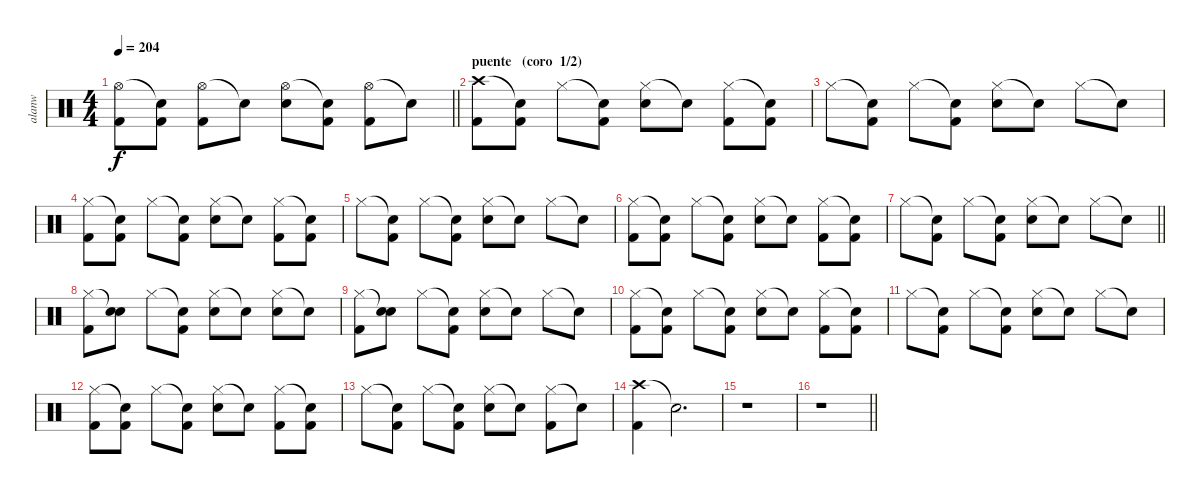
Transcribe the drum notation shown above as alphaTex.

\track ("alanw" "alanw") {instrument percussion}
\staff {score}
\articulation defaults
\ts (4 4)
\tempo 204
\clef neutral
\barLineRight lightlight
\ks c
("Hi-Hat (open)" "Kick (hit) 2").8{dy f} ("Snare (hit)"{t} "Kick (hit) 2").8 ("Hi-Hat (open)" "Kick (hit) 2").8 "Snare (hit)"{t}.8 ("Hi-Hat (open)" "Electric Snare (hit)").8 ("Snare (hit)"{t} "Kick (hit) 2").8 ("Hi-Hat (open)" "Kick (hit) 2").8 "Snare (hit)"{t}.8 |
\section ("" "puente   (coro  1/2)")
("Crash high (hit)" "Kick (hit) 2").8 ("Snare (hit)"{t} "Kick (hit) 2").8 "Hi-Hat (closed)".8 ("Snare (hit)"{t} "Kick (hit) 2").8 ("Hi-Hat (closed)" "Electric Snare (hit)").8 "Snare (hit)"{t}.8 ("Hi-Hat (closed)" "Kick (hit) 2").8 ("Snare (hit)"{t} "Kick (hit) 2").8 |
"Hi-Hat (closed)".8 ("Snare (hit)"{t} "Kick (hit) 2").8 "Hi-Hat (closed)".8 ("Snare (hit)"{t} "Kick (hit) 2").8 ("Hi-Hat (closed)" "Electric Snare (hit)").8 "Snare (hit)"{t}.8 "Hi-Hat (closed)".8 "Snare (hit)"{t}.8 |
("Hi-Hat (closed)" "Kick (hit) 2").8 ("Snare (hit)"{t} "Kick (hit) 2").8 "Hi-Hat (closed)".8 ("Snare (hit)"{t} "Kick (hit) 2").8 ("Hi-Hat (closed)" "Electric Snare (hit)").8 "Snare (hit)"{t}.8 ("Hi-Hat (closed)" "Kick (hit) 2").8 ("Snare (hit)"{t} "Kick (hit) 2").8 |
"Hi-Hat (closed)".8 ("Snare (hit)"{t} "Kick (hit) 2").8 "Hi-Hat (closed)".8 ("Snare (hit)"{t} "Kick (hit) 2").8 ("Hi-Hat (closed)" "Electric Snare (hit)").8 "Snare (hit)"{t}.8 "Hi-Hat (closed)".8 "Snare (hit)"{t}.8 |
("Hi-Hat (closed)" "Kick (hit) 2").8 ("Snare (hit)"{t} "Kick (hit) 2").8 "Hi-Hat (closed)".8 ("Snare (hit)"{t} "Kick (hit) 2").8 ("Hi-Hat (closed)" "Electric Snare (hit)").8 "Snare (hit)"{t}.8 ("Hi-Hat (closed)" "Kick (hit) 2").8 ("Snare (hit)"{t} "Kick (hit) 2").8 |
\barLineRight lightlight "Hi-Hat (closed)".8
("Snare (hit)"{t} "Kick (hit) 2").8 "Hi-Hat (closed)".8 ("Snare (hit)"{t} "Kick (hit) 2").8 ("Hi-Hat (closed)" "Electric Snare (hit)").8 "Snare (hit)"{t}.8 "Hi-Hat (closed)".8 "Snare (hit)"{t}.8 |
("Hi-Hat (closed)" "Kick (hit) 2").8 ("Snare (hit)"{t} "Electric Snare (hit)").8 "Hi-Hat (closed)".8 ("Snare (hit)"{t} "Kick (hit) 2").8 ("Hi-Hat (closed)" "Electric Snare (hit)").8 "Snare (hit)"{t}.8 ("Hi-Hat (closed)" "Electric Snare (hit)").8 "Snare (hit)"{t}.8 |
("Hi-Hat (closed)" "Kick (hit) 2").8 ("Snare (hit)"{t} "Electric Snare (hit)").8 "Hi-Hat (closed)".8 ("Snare (hit)"{t} "Kick (hit) 2").8 ("Hi-Hat (closed)" "Electric Snare (hit)").8 "Snare (hit)"{t}.8 "Hi-Hat (closed)".8 "Snare (hit)"{t}.8 |
("Hi-Hat (closed)" "Kick (hit) 2").8 ("Snare (hit)"{t} "Kick (hit) 2").8 "Hi-Hat (closed)".8 ("Snare (hit)"{t} "Kick (hit) 2").8 ("Hi-Hat (closed)" "Electric Snare (hit)").8 "Snare (hit)"{t}.8 ("Hi-Hat (closed)" "Kick (hit) 2").8 ("Snare (hit)"{t} "Kick (hit) 2").8 |
"Hi-Hat (closed)".8 ("Snare (hit)"{t} "Kick (hit) 2").8 "Hi-Hat (closed)".8 ("Snare (hit)"{t} "Kick (hit) 2").8 ("Hi-Hat (closed)" "Electric Snare (hit)").8 "Snare (hit)"{t}.8 "Hi-Hat (closed)".8 "Snare (hit)"{t}.8 |
("Hi-Hat (closed)" "Kick (hit) 2").8 ("Snare (hit)"{t} "Kick (hit) 2").8 "Hi-Hat (closed)".8 ("Snare (hit)"{t} "Kick (hit) 2").8 ("Hi-Hat (closed)" "Electric Snare (hit)").8 "Snare (hit)"{t}.8 ("Hi-Hat (closed)" "Kick (hit) 2").8 ("Snare (hit)"{t} "Kick (hit) 2").8 |
"Hi-Hat (closed)".8 ("Snare (hit)"{t} "Kick (hit) 2").8 "Hi-Hat (closed)".8 ("Snare (hit)"{t} "Kick (hit) 2").8 ("Hi-Hat (closed)" "Electric Snare (hit)").8 "Snare (hit)"{t}.8 ("Hi-Hat (closed)" "Kick (hit) 2").8 "Snare (hit)"{t}.8 |
("Crash high (hit)" "Kick (hit) 2").4 "Snare (hit)"{t}.2{d} |
r.1 |
\barLineRight lightlight
r.1
